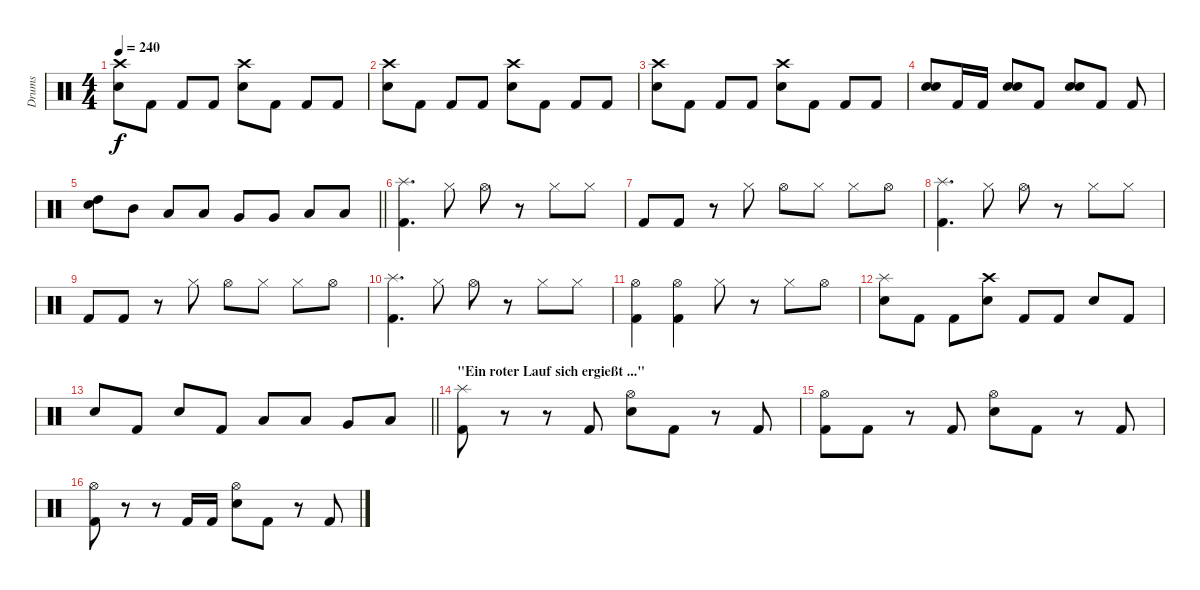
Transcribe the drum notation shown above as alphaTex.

\track ("Drums" "Drums") {instrument percussion}
\staff {score}
\articulation defaults
\ts (4 4)
\tempo 240
\clef neutral
\ks c
("Crash high (hit)" "Electric Snare (hit)").8{dy f} "Kick (hit) 2".8 "Kick (hit) 2".8 "Kick (hit) 2".8 ("Crash high (hit)" "Electric Snare (hit)").8 "Kick (hit) 2".8 "Kick (hit) 2".8 "Kick (hit) 2".8 |
("Crash high (hit)" "Electric Snare (hit)").8 "Kick (hit) 2".8 "Kick (hit) 2".8 "Kick (hit) 2".8 ("Crash high (hit)" "Electric Snare (hit)").8 "Kick (hit) 2".8 "Kick (hit) 2".8 "Kick (hit) 2".8 |
("Crash high (hit)" "Electric Snare (hit)").8 "Kick (hit) 2".8 "Kick (hit) 2".8 "Kick (hit) 2".8 ("Crash high (hit)" "Electric Snare (hit)").8 "Kick (hit) 2".8 "Kick (hit) 2".8 "Kick (hit) 2".8 |
("Electric Snare (hit)" "Electric Snare (hit)").8 "Kick (hit) 2".16 "Kick (hit) 2".16 ("Electric Snare (hit)" "Electric Snare (hit)").8 "Kick (hit) 2".8 ("Electric Snare (hit)" "Electric Snare (hit)").8 "Kick (hit) 2".8 "Kick (hit) 2".8 |
\barLineRight lightlight
("High Tom (hit)" "Electric Snare (hit)").8 "Mid Tom (hit)".8 "Low Tom (hit)".8 "Low Tom (hit)".8 "Very Low Tom (hit)".8 "Very Low Tom (hit)".8 "Low Floor Tom (hit)".8 "Low Floor Tom (hit)".8 |
("Splash (hit)" "Kick (hit) 2").4{d} "Hi-Hat (closed)".8 "Hi-Hat (open)".8 r.8 "Hi-Hat (closed)".8 "Hi-Hat (closed)".8 |
"Kick (hit) 2".8 "Kick (hit) 2".8 r.8 "Hi-Hat (closed)".8 "Hi-Hat (open)".8 "Hi-Hat (closed)".8 "Hi-Hat (closed)".8 "Hi-Hat (open)".8 |
("Splash (hit)" "Kick (hit) 2").4{d} "Hi-Hat (closed)".8 "Hi-Hat (open)".8 r.8 "Hi-Hat (closed)".8 "Hi-Hat (closed)".8 |
"Kick (hit) 2".8 "Kick (hit) 2".8 r.8 "Hi-Hat (closed)".8 "Hi-Hat (open)".8 "Hi-Hat (closed)".8 "Hi-Hat (closed)".8 "Hi-Hat (open)".8 |
("Splash (hit)" "Kick (hit) 2").4{d} "Hi-Hat (closed)".8 "Hi-Hat (open)".8 r.8 "Hi-Hat (closed)".8 "Hi-Hat (closed)".8 |
("Hi-Hat (open)" "Kick (hit) 2").4 ("Hi-Hat (open)" "Kick (hit) 2").4 "Hi-Hat (closed)".8 r.8 "Hi-Hat (closed)".8 "Hi-Hat (open)".8 |
("Splash (hit)" "Electric Snare (hit)").8 "Kick (hit) 2".8 "Kick (hit) 2".8 ("Crash high (hit)" "Electric Snare (hit)").8 "Kick (hit) 2".8 "Kick (hit) 2".8 "Electric Snare (hit)".8 "Kick (hit) 2".8 |
\barLineRight lightlight "Electric Snare (hit)".8 "Kick (hit) 2".8 "Electric Snare (hit)".8 "Kick (hit) 2".8 "Low Tom (hit)".8 "Low Tom (hit)".8 "Very Low Tom (hit)".8 "Low Floor Tom (hit)".8
|
\section ("" "\"Ein roter Lauf sich ergießt ...\"")
("Splash (hit)" "Kick (hit) 2").8 r.8 r.8 "Kick (hit) 2".8 ("Hi-Hat (open)" "Electric Snare (hit)").8 "Kick (hit) 2".8 r.8 "Kick (hit) 2".8 |
("Hi-Hat (open)" "Kick (hit) 2").8 "Kick (hit) 2".8 r.8 "Kick (hit) 2".8 ("Hi-Hat (open)" "Electric Snare (hit)").8 "Kick (hit) 2".8 r.8 "Kick (hit) 2".8 |
("Hi-Hat (open)" "Kick (hit) 2").8 r.8 r.8 "Kick (hit) 2".16 "Kick (hit) 2".16 ("Hi-Hat (open)" "Electric Snare (hit)").8 "Kick (hit) 2".8 r.8 "Kick (hit) 2".8
